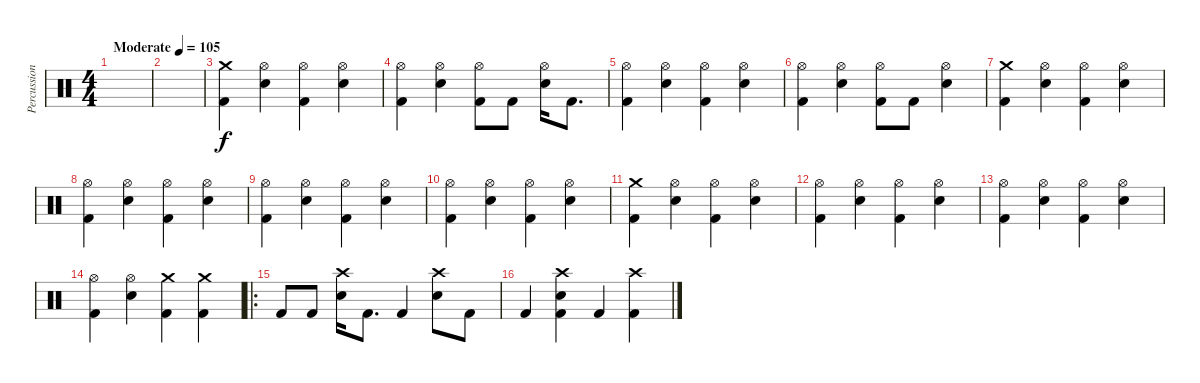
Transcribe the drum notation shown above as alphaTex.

\track ("Percussion" "Percussion") {instrument percussion}
\staff {score}
\articulation defaults
\ts (4 4)
\tempo (105 "Moderate")
\clef neutral
\ks c
|
|
("Crash medium (hit)" "Kick (hit) 2").4 ("Hi-Hat (open)" "Electric Snare (hit)").4 ("Hi-Hat (open)" "Kick (hit) 2").4 ("Hi-Hat (open)" "Electric Snare (hit)").4 |
("Hi-Hat (open)" "Kick (hit) 2").4 ("Hi-Hat (open)" "Electric Snare (hit)").4 ("Hi-Hat (open)" "Kick (hit) 2").8 "Kick (hit) 2".8 ("Hi-Hat (open)" "Electric Snare (hit)").16 "Kick (hit) 2".8{d} |
("Hi-Hat (open)" "Kick (hit) 2").4 ("Hi-Hat (open)" "Electric Snare (hit)").4 ("Hi-Hat (open)" "Kick (hit) 2").4 ("Hi-Hat (open)" "Electric Snare (hit)").4 |
("Hi-Hat (open)" "Kick (hit) 2").4 ("Hi-Hat (open)" "Electric Snare (hit)").4 ("Hi-Hat (open)" "Kick (hit) 2").8 "Kick (hit) 2".8 ("Hi-Hat (open)" "Electric Snare (hit)").4 |
("Crash medium (hit)" "Kick (hit) 2").4 ("Hi-Hat (open)" "Electric Snare (hit)").4 ("Hi-Hat (open)" "Kick (hit) 2").4 ("Hi-Hat (open)" "Electric Snare (hit)").4 |
("Hi-Hat (open)" "Kick (hit) 2").4 ("Hi-Hat (open)" "Electric Snare (hit)").4 ("Hi-Hat (open)" "Kick (hit) 2").4 ("Hi-Hat (open)" "Electric Snare (hit)").4 |
("Hi-Hat (open)" "Kick (hit) 2").4 ("Hi-Hat (open)" "Electric Snare (hit)").4 ("Hi-Hat (open)" "Kick (hit) 2").4 ("Hi-Hat (open)" "Electric Snare (hit)").4 |
("Hi-Hat (open)" "Kick (hit) 2").4 ("Hi-Hat (open)" "Electric Snare (hit)").4 ("Hi-Hat (open)" "Kick (hit) 2").4 ("Hi-Hat (open)" "Electric Snare (hit)").4 |
("Crash medium (hit)" "Kick (hit) 2").4 ("Hi-Hat (open)" "Electric Snare (hit)").4 ("Hi-Hat (open)" "Kick (hit) 2").4 ("Hi-Hat (open)" "Electric Snare (hit)").4 |
("Hi-Hat (open)" "Kick (hit) 2").4 ("Hi-Hat (open)" "Electric Snare (hit)").4 ("Hi-Hat (open)" "Kick (hit) 2").4 ("Hi-Hat (open)" "Electric Snare (hit)").4 |
("Hi-Hat (open)" "Kick (hit) 2").4 ("Hi-Hat (open)" "Electric Snare (hit)").4 ("Hi-Hat (open)" "Kick (hit) 2").4 ("Hi-Hat (open)" "Electric Snare (hit)").4 |
("Hi-Hat (open)" "Kick (hit) 2").4 ("Hi-Hat (open)" "Electric Snare (hit)").4 ("Crash medium (hit)" "Kick (hit) 2").4 ("Crash medium (hit)" "Kick (hit) 2").4 |
\ro "Kick (hit) 2".8 "Kick (hit) 2".8
("Crash high (hit)" "Electric Snare (hit)").16 "Kick (hit) 2".8{d} "Kick (hit) 2".4 ("Crash high (hit)" "Electric Snare (hit)").8 "Kick (hit) 2".8 |
"Kick (hit) 2".4 ("Crash high (hit)" "Electric Snare (hit)" "Kick (hit) 2").4 "Kick (hit) 2".4 ("Crash high (hit)" "Kick (hit) 2").4
